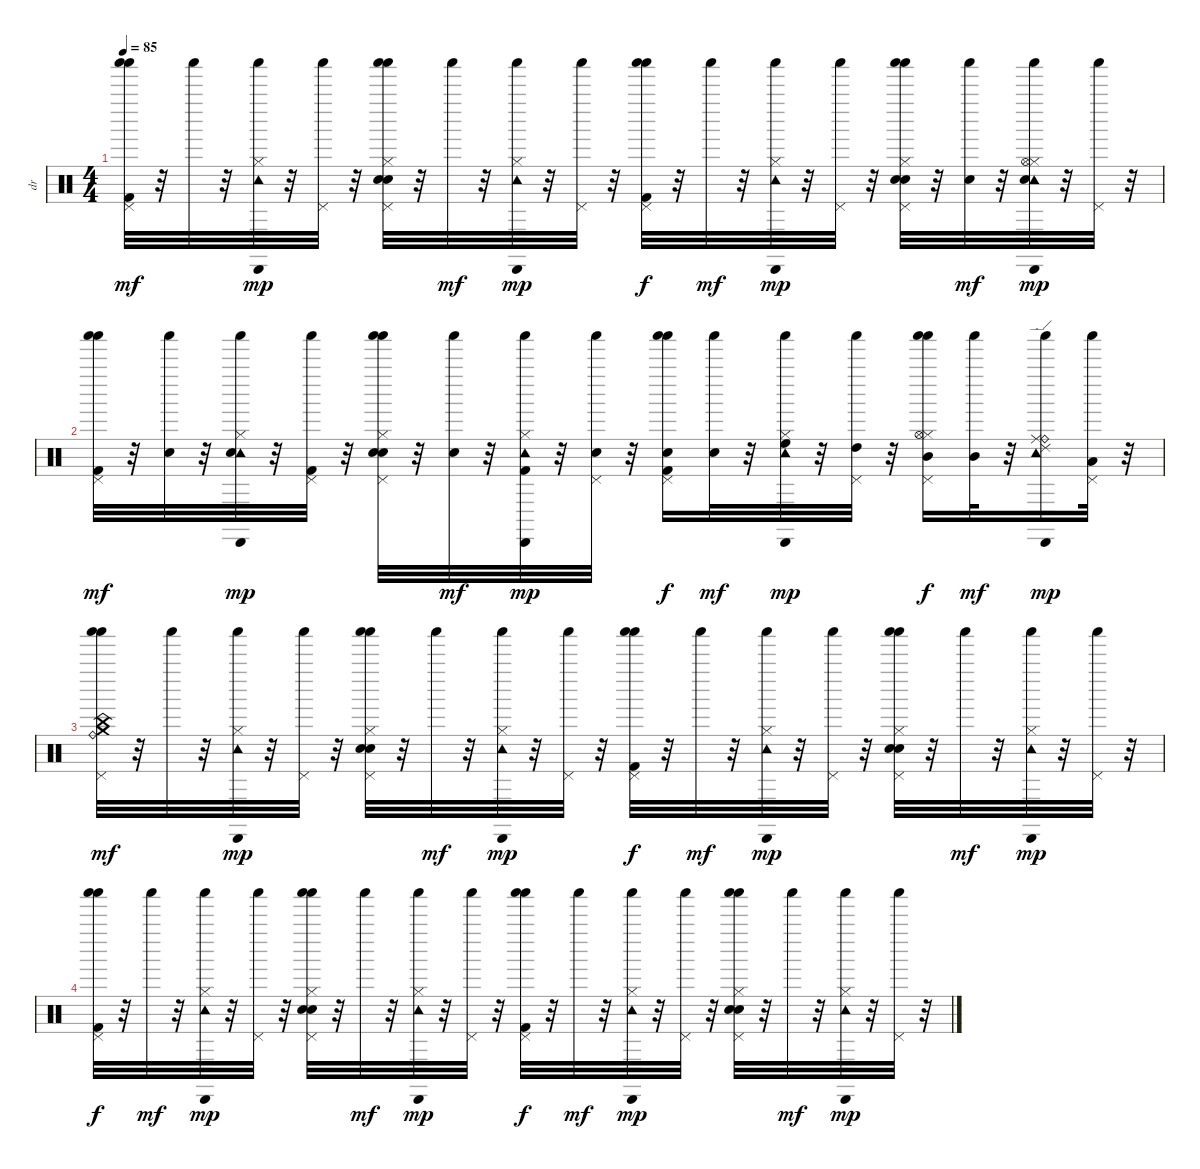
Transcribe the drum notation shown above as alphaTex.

\track ("dr" "dr") {instrument percussion}
\staff {score}
\articulation defaults
\ts (4 4)
\tempo 85
\clef neutral
\ks c
("Kick (hit) 2" "Shaker (hit)" "Shaker (hit)" "Pedal Hi-Hat (hit)").32{dy mf} r.32 "Shaker (hit)".32 r.32 ("Hi-Hat (closed)" "Cabasa (hit)" "Tambourine (hit)" "Shaker (hit)").32{dy mp} r.32 ("Pedal Hi-Hat (hit)" "Shaker (hit)").32 r.32 ("Pedal Hi-Hat (hit)" "Shaker (hit)" "Shaker (hit)" "Hi-Hat (closed)" "Electric Snare (hit)" "Snare (hit) 2").32 r.32 "Shaker (hit)".32{dy mf} r.32 ("Hi-Hat (closed)" "Cabasa (hit)" "Tambourine (hit)" "Shaker (hit)").32{dy mp} r.32 ("Pedal Hi-Hat (hit)" "Shaker (hit)").32 r.32 ("Pedal Hi-Hat (hit)" "Shaker (hit)" "Shaker (hit)" "Kick (hit) 2").32{dy f} r.32 "Shaker (hit)".32{dy mf} r.32 ("Hi-Hat (closed)" "Cabasa (hit)" "Tambourine (hit)" "Shaker (hit)").32{dy mp} r.32 ("Pedal Hi-Hat (hit)" "Shaker (hit)").32 r.32 ("Electric Snare (hit)" "Pedal Hi-Hat (hit)" "Shaker (hit)" "Shaker (hit)" "Hi-Hat (closed)" "Snare (hit) 2").32 r.32 ("Shaker (hit)" "Snare (hit) 2").32{dy mf} r.32 ("Hi-Hat (closed)" "Cabasa (hit)" "Tambourine (hit)" "Shaker (hit)" "Hi-Hat (open)" "Snare (hit) 2").32{dy mp} r.32 ("Pedal Hi-Hat (hit)" "Shaker (hit)").32 r.32 |
("Kick (hit) 2" "Shaker (hit)" "Shaker (hit)" "Pedal Hi-Hat (hit)").32{dy mf} r.32 ("Shaker (hit)" "Snare (hit) 2").32 r.32 ("Hi-Hat (closed)" "Cabasa (hit)" "Tambourine (hit)" "Shaker (hit)" "Snare (hit) 2").32{dy mp} r.32 ("Shaker (hit)" "Pedal Hi-Hat (hit)" "Kick (hit) 2").32 r.32 ("Shaker (hit)" "Shaker (hit)" "Pedal Hi-Hat (hit)" "Hi-Hat (closed)" "Electric Snare (hit)" "Snare (hit) 2").32 r.32 ("Shaker (hit)" "Snare (hit) 2").32{dy mf} r.32 ("Cabasa (hit)" "Tambourine (hit)" "Shaker (hit)" "Kick (hit) 2" "Hi-Hat (closed)").32{dy mp} r.32 ("Shaker (hit)" "Snare (hit) 2" "Pedal Hi-Hat (hit)").32 r.32 ("Shaker (hit)" "Shaker (hit)" "Kick (hit) 2" "Snare (hit) 2" "Pedal Hi-Hat (hit)").16{dy f} ("Shaker (hit)" "Snare (hit) 2").32{dy mf} r.32 ("Cabasa (hit)" "Tambourine (hit)" "Shaker (hit)" "High Floor Tom (hit)" "Hi-Hat (closed)").32{dy mp} r.32 ("Shaker (hit)" "High Tom (hit)" "Pedal Hi-Hat (hit)").32 r.32 ("Pedal Hi-Hat (hit)" "Shaker (hit)" "Shaker (hit)" "Hi-Hat (closed)" "Hi-Hat (open)" "Mid Tom (hit)").16{dy f} ("Shaker (hit)" "Mid Tom (hit)").32{dy mf} r.32 ("Cabasa (hit)" "Tambourine (hit)" "Shaker (hit)" "Ride (bell)" "Ride (edge) 2" "Ride (middle)").16{dy mp} ("Shaker (hit)" "Pedal Hi-Hat (hit)" "Low Floor Tom (hit)").32 r.32 |
("Shaker (hit)" "Shaker (hit)" "China (hit)" "Pedal Hi-Hat (hit)" "Crash medium (hit)" "Ride (bell)").32{dy mf} r.32 "Shaker (hit)".32 r.32 ("Hi-Hat (closed)" "Tambourine (hit)" "Cabasa (hit)" "Shaker (hit)").32{dy mp} r.32 ("Pedal Hi-Hat (hit)" "Shaker (hit)").32 r.32 ("Electric Snare (hit)" "Pedal Hi-Hat (hit)" "Shaker (hit)" "Shaker (hit)" "Hi-Hat (closed)" "Snare (hit) 2").32 r.32 "Shaker (hit)".32{dy mf} r.32 ("Hi-Hat (closed)" "Tambourine (hit)" "Cabasa (hit)" "Shaker (hit)").32{dy mp} r.32 ("Pedal Hi-Hat (hit)" "Shaker (hit)").32 r.32 ("Pedal Hi-Hat (hit)" "Shaker (hit)" "Shaker (hit)" "Kick (hit) 2").32{dy f} r.32 "Shaker (hit)".32{dy mf} r.32 ("Hi-Hat (closed)" "Tambourine (hit)" "Cabasa (hit)" "Shaker (hit)").32{dy mp} r.32 ("Pedal Hi-Hat (hit)" "Shaker (hit)").32 r.32 ("Electric Snare (hit)" "Pedal Hi-Hat (hit)" "Shaker (hit)" "Shaker (hit)" "Hi-Hat (closed)" "Snare (hit) 2").32 r.32 "Shaker (hit)".32{dy mf} r.32 ("Hi-Hat (closed)" "Tambourine (hit)" "Cabasa (hit)" "Shaker (hit)").32{dy mp} r.32 ("Pedal Hi-Hat (hit)" "Shaker (hit)").32 r.32 |
("Pedal Hi-Hat (hit)" "Shaker (hit)" "Shaker (hit)" "Kick (hit) 2").32{dy f} r.32 "Shaker (hit)".32{dy mf} r.32 ("Hi-Hat (closed)" "Tambourine (hit)" "Cabasa (hit)" "Shaker (hit)").32{dy mp} r.32 ("Pedal Hi-Hat (hit)" "Shaker (hit)").32 r.32 ("Electric Snare (hit)" "Pedal Hi-Hat (hit)" "Shaker (hit)" "Shaker (hit)" "Hi-Hat (closed)" "Snare (hit) 2").32 r.32 "Shaker (hit)".32{dy mf} r.32 ("Hi-Hat (closed)" "Tambourine (hit)" "Cabasa (hit)" "Shaker (hit)").32{dy mp} r.32 ("Pedal Hi-Hat (hit)" "Shaker (hit)").32 r.32 ("Pedal Hi-Hat (hit)" "Shaker (hit)" "Shaker (hit)" "Kick (hit) 2").32{dy f} r.32 "Shaker (hit)".32{dy mf} r.32 ("Hi-Hat (closed)" "Tambourine (hit)" "Cabasa (hit)" "Shaker (hit)").32{dy mp} r.32 ("Pedal Hi-Hat (hit)" "Shaker (hit)").32 r.32 ("Electric Snare (hit)" "Pedal Hi-Hat (hit)" "Shaker (hit)" "Shaker (hit)" "Hi-Hat (closed)" "Snare (hit) 2").32 r.32 "Shaker (hit)".32{dy mf} r.32 ("Hi-Hat (closed)" "Tambourine (hit)" "Cabasa (hit)" "Shaker (hit)").32{dy mp} r.32 ("Pedal Hi-Hat (hit)" "Shaker (hit)").32 r.32
